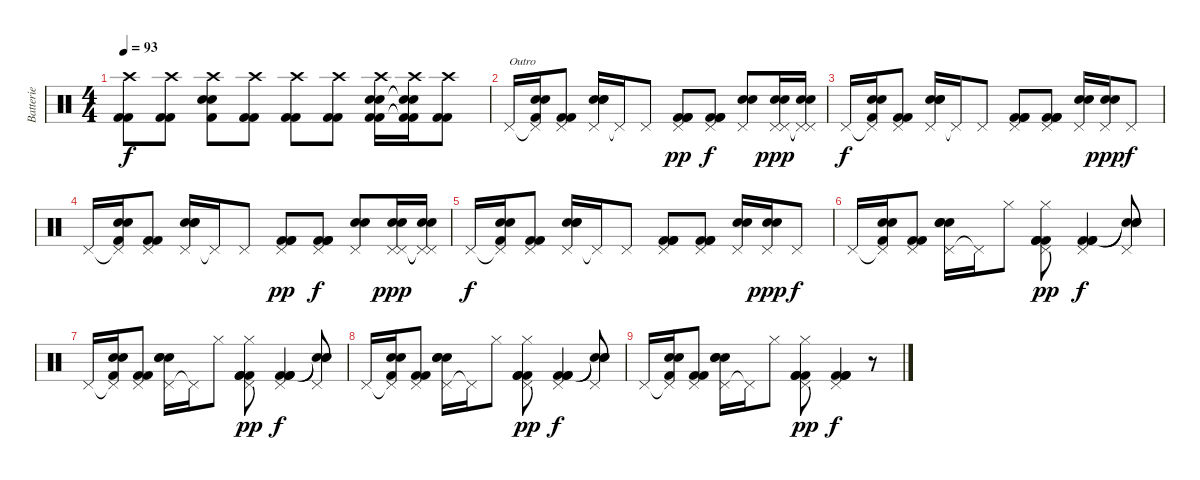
\track ("Batterie" "Batterie") {instrument percussion}
\staff {score}
\articulation defaults
\ts (4 4)
\tempo 93
\clef neutral
\ks c
("Crash high (hit)" "Kick (hit) 2" "Kick (hit) 2").8{dy f} ("Crash high (hit)" "Kick (hit) 2" "Kick (hit) 2").8 ("Crash high (hit)" "Snare (hit) 2" "Snare (hit) 2" "Kick (hit) 2").8 ("Crash high (hit)" "Kick (hit) 2" "Kick (hit) 2").8 ("Crash high (hit)" "Kick (hit) 2" "Kick (hit) 2").8 ("Crash high (hit)" "Kick (hit) 2" "Kick (hit) 2").8 ("Crash high (hit)" "Snare (hit) 2" "Snare (hit) 2" "Kick (hit) 2" "Kick (hit) 2").16 ("Crash high (hit)" "Snare (hit) 2"{t} "Snare (hit) 2"{t} "Kick (hit) 2"{t} "Kick (hit) 2"{t}).16 ("Crash high (hit)" "Kick (hit) 2" "Kick (hit) 2").8 |
"Pedal Hi-Hat (hit)".16{txt "Outro"} ("Pedal Hi-Hat (hit)"{t} "Snare (hit) 2" "Snare (hit) 2" "Kick (hit) 2").16 ("Pedal Hi-Hat (hit)" "Kick (hit) 2" "Kick (hit) 2").8 ("Pedal Hi-Hat (hit)" "Snare (hit) 2" "Snare (hit) 2" "Snare (hit) 2").16 "Pedal Hi-Hat (hit)"{t}.16 "Pedal Hi-Hat (hit)".8 ("Pedal Hi-Hat (hit)" "Kick (hit) 2" "Kick (hit) 2" "Kick (hit) 2").8{dy pp} ("Pedal Hi-Hat (hit)" "Kick (hit) 2" "Kick (hit) 2" "Kick (hit) 2").8{dy f} ("Pedal Hi-Hat (hit)" "Snare (hit) 2" "Snare (hit) 2").8 ("Pedal Hi-Hat (hit)" "Pedal Hi-Hat (hit)" "Snare (hit) 2" "Snare (hit) 2").16{dy ppp} ("Pedal Hi-Hat (hit)"{t} "Pedal Hi-Hat (hit)"{t} "Snare (hit) 2" "Snare (hit) 2").16 |
"Pedal Hi-Hat (hit)".16{dy f} ("Pedal Hi-Hat (hit)"{t} "Snare (hit) 2" "Snare (hit) 2" "Kick (hit) 2").16 ("Pedal Hi-Hat (hit)" "Kick (hit) 2" "Kick (hit) 2").8 ("Pedal Hi-Hat (hit)" "Snare (hit) 2" "Snare (hit) 2" "Snare (hit) 2").16 "Pedal Hi-Hat (hit)"{t}.16 "Pedal Hi-Hat (hit)".8 ("Pedal Hi-Hat (hit)" "Kick (hit) 2" "Kick (hit) 2" "Kick (hit) 2").8 ("Pedal Hi-Hat (hit)" "Kick (hit) 2" "Kick (hit) 2" "Kick (hit) 2").8 ("Pedal Hi-Hat (hit)" "Snare (hit) 2" "Snare (hit) 2").16 ("Pedal Hi-Hat (hit)" "Snare (hit) 2" "Snare (hit) 2").16{dy ppp} "Pedal Hi-Hat (hit)".8{dy f} |
"Pedal Hi-Hat (hit)".16 ("Pedal Hi-Hat (hit)"{t} "Snare (hit) 2" "Snare (hit) 2" "Kick (hit) 2").16 ("Pedal Hi-Hat (hit)" "Kick (hit) 2" "Kick (hit) 2").8 ("Pedal Hi-Hat (hit)" "Snare (hit) 2" "Snare (hit) 2" "Snare (hit) 2").16 "Pedal Hi-Hat (hit)"{t}.16 "Pedal Hi-Hat (hit)".8 ("Pedal Hi-Hat (hit)" "Kick (hit) 2" "Kick (hit) 2" "Kick (hit) 2").8{dy pp} ("Pedal Hi-Hat (hit)" "Kick (hit) 2" "Kick (hit) 2" "Kick (hit) 2").8{dy f} ("Pedal Hi-Hat (hit)" "Snare (hit) 2" "Snare (hit) 2").8 ("Pedal Hi-Hat (hit)" "Pedal Hi-Hat (hit)" "Snare (hit) 2" "Snare (hit) 2").16{dy ppp} ("Pedal Hi-Hat (hit)"{t} "Pedal Hi-Hat (hit)"{t} "Snare (hit) 2" "Snare (hit) 2").16 |
"Pedal Hi-Hat (hit)".16{dy f} ("Pedal Hi-Hat (hit)"{t} "Snare (hit) 2" "Snare (hit) 2" "Kick (hit) 2").16 ("Pedal Hi-Hat (hit)" "Kick (hit) 2" "Kick (hit) 2").8 ("Pedal Hi-Hat (hit)" "Snare (hit) 2" "Snare (hit) 2" "Snare (hit) 2").16 "Pedal Hi-Hat (hit)"{t}.16 "Pedal Hi-Hat (hit)".8 ("Pedal Hi-Hat (hit)" "Kick (hit) 2" "Kick (hit) 2" "Kick (hit) 2").8 ("Pedal Hi-Hat (hit)" "Kick (hit) 2" "Kick (hit) 2" "Kick (hit) 2").8 ("Pedal Hi-Hat (hit)" "Snare (hit) 2" "Snare (hit) 2").16 ("Pedal Hi-Hat (hit)" "Snare (hit) 2" "Snare (hit) 2").16{dy ppp} "Pedal Hi-Hat (hit)".8{dy f} |
"Pedal Hi-Hat (hit)".16 ("Pedal Hi-Hat (hit)"{t} "Snare (hit) 2" "Snare (hit) 2" "Kick (hit) 2").16 ("Pedal Hi-Hat (hit)" "Kick (hit) 2" "Kick (hit) 2").8 ("Pedal Hi-Hat (hit)" "Snare (hit) 2" "Snare (hit) 2" "Snare (hit) 2").16 "Pedal Hi-Hat (hit)"{t}.16 "Hi-Hat (closed)".8 ("Pedal Hi-Hat (hit)" "Hi-Hat (closed)" "Kick (hit) 2" "Kick (hit) 2" "Kick (hit) 2").8{dy pp} ("Pedal Hi-Hat (hit)" "Kick (hit) 2" "Kick (hit) 2" "Kick (hit) 2").4{dy f} ("Pedal Hi-Hat (hit)" "Snare (hit)"{t} "Snare (hit)"{t} "Snare (hit)"{t}).8 |
"Pedal Hi-Hat (hit)".16 ("Pedal Hi-Hat (hit)"{t} "Snare (hit) 2" "Snare (hit) 2" "Kick (hit) 2").16 ("Pedal Hi-Hat (hit)" "Kick (hit) 2" "Kick (hit) 2").8 ("Pedal Hi-Hat (hit)" "Snare (hit) 2" "Snare (hit) 2" "Snare (hit) 2").16 "Pedal Hi-Hat (hit)"{t}.16 "Hi-Hat (closed)".8 ("Pedal Hi-Hat (hit)" "Hi-Hat (closed)" "Kick (hit) 2" "Kick (hit) 2" "Kick (hit) 2").8{dy pp} ("Pedal Hi-Hat (hit)" "Kick (hit) 2" "Kick (hit) 2" "Kick (hit) 2").4{dy f} ("Pedal Hi-Hat (hit)" "Snare (hit)"{t} "Snare (hit)"{t} "Snare (hit)"{t}).8 |
"Pedal Hi-Hat (hit)".16 ("Pedal Hi-Hat (hit)"{t} "Snare (hit) 2" "Snare (hit) 2" "Kick (hit) 2").16 ("Pedal Hi-Hat (hit)" "Kick (hit) 2" "Kick (hit) 2").8 ("Pedal Hi-Hat (hit)" "Snare (hit) 2" "Snare (hit) 2" "Snare (hit) 2").16 "Pedal Hi-Hat (hit)"{t}.16 "Hi-Hat (closed)".8 ("Pedal Hi-Hat (hit)" "Hi-Hat (closed)" "Kick (hit) 2" "Kick (hit) 2" "Kick (hit) 2").8{dy pp} ("Pedal Hi-Hat (hit)" "Kick (hit) 2" "Kick (hit) 2" "Kick (hit) 2").4{dy f} ("Pedal Hi-Hat (hit)" "Snare (hit)"{t} "Snare (hit)"{t} "Snare (hit)"{t}).8 |
"Pedal Hi-Hat (hit)".16 ("Pedal Hi-Hat (hit)"{t} "Snare (hit) 2" "Snare (hit) 2" "Kick (hit) 2").16 ("Pedal Hi-Hat (hit)" "Kick (hit) 2" "Kick (hit) 2").8 ("Pedal Hi-Hat (hit)" "Snare (hit) 2" "Snare (hit) 2" "Snare (hit) 2").16 "Pedal Hi-Hat (hit)"{t}.16 "Hi-Hat (closed)".8 ("Pedal Hi-Hat (hit)" "Hi-Hat (closed)" "Kick (hit) 2" "Kick (hit) 2" "Kick (hit) 2").8{dy pp} ("Pedal Hi-Hat (hit)" "Kick (hit) 2" "Kick (hit) 2" "Kick (hit) 2").4{dy f} r.8
